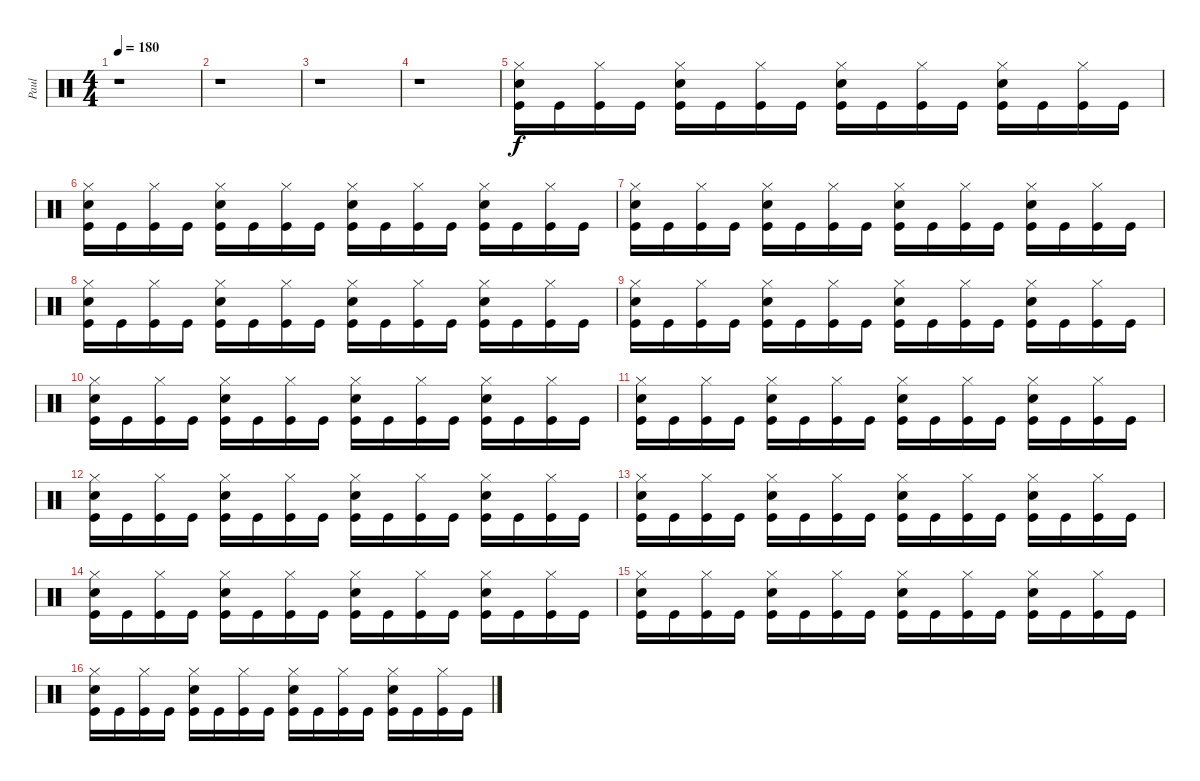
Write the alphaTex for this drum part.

\track ("Paul" "Paul") {instrument percussion}
\staff {score}
\articulation defaults
\ts (4 4)
\tempo 180
\clef neutral
\ks c
r.1{dy f} |
r.1 |
r.1 |
r.1 |
("Kick (hit)" "Snare (hit) 2" "Hi-Hat (closed)").16 "Kick (hit)".16 ("Kick (hit)" "Hi-Hat (closed)").16 "Kick (hit)".16 ("Kick (hit)" "Snare (hit) 2" "Hi-Hat (closed)").16 "Kick (hit)".16 ("Kick (hit)" "Hi-Hat (closed)").16 "Kick (hit)".16 ("Kick (hit)" "Snare (hit) 2" "Hi-Hat (closed)").16 "Kick (hit)".16 ("Kick (hit)" "Hi-Hat (closed)").16 "Kick (hit)".16 ("Kick (hit)" "Snare (hit) 2" "Hi-Hat (closed)").16 "Kick (hit)".16 ("Kick (hit)" "Hi-Hat (closed)").16 "Kick (hit)".16 |
("Kick (hit)" "Snare (hit) 2" "Hi-Hat (closed)").16 "Kick (hit)".16 ("Kick (hit)" "Hi-Hat (closed)").16 "Kick (hit)".16 ("Kick (hit)" "Snare (hit) 2" "Hi-Hat (closed)").16 "Kick (hit)".16 ("Kick (hit)" "Hi-Hat (closed)").16 "Kick (hit)".16 ("Kick (hit)" "Snare (hit) 2" "Hi-Hat (closed)").16 "Kick (hit)".16 ("Kick (hit)" "Hi-Hat (closed)").16 "Kick (hit)".16 ("Kick (hit)" "Snare (hit) 2" "Hi-Hat (closed)").16 "Kick (hit)".16 ("Kick (hit)" "Hi-Hat (closed)").16 "Kick (hit)".16 |
("Kick (hit)" "Snare (hit) 2" "Hi-Hat (closed)").16 "Kick (hit)".16 ("Kick (hit)" "Hi-Hat (closed)").16 "Kick (hit)".16 ("Kick (hit)" "Snare (hit) 2" "Hi-Hat (closed)").16 "Kick (hit)".16 ("Kick (hit)" "Hi-Hat (closed)").16 "Kick (hit)".16 ("Kick (hit)" "Snare (hit) 2" "Hi-Hat (closed)").16 "Kick (hit)".16 ("Kick (hit)" "Hi-Hat (closed)").16 "Kick (hit)".16 ("Kick (hit)" "Snare (hit) 2" "Hi-Hat (closed)").16 "Kick (hit)".16 ("Kick (hit)" "Hi-Hat (closed)").16 "Kick (hit)".16 |
("Kick (hit)" "Snare (hit) 2" "Hi-Hat (closed)").16 "Kick (hit)".16 ("Kick (hit)" "Hi-Hat (closed)").16 "Kick (hit)".16 ("Kick (hit)" "Snare (hit) 2" "Hi-Hat (closed)").16 "Kick (hit)".16 ("Kick (hit)" "Hi-Hat (closed)").16 "Kick (hit)".16 ("Kick (hit)" "Snare (hit) 2" "Hi-Hat (closed)").16 "Kick (hit)".16 ("Kick (hit)" "Hi-Hat (closed)").16 "Kick (hit)".16 ("Kick (hit)" "Snare (hit) 2" "Hi-Hat (closed)").16 "Kick (hit)".16 ("Kick (hit)" "Hi-Hat (closed)").16 "Kick (hit)".16 |
("Kick (hit)" "Snare (hit) 2" "Hi-Hat (closed)").16 "Kick (hit)".16 ("Kick (hit)" "Hi-Hat (closed)").16 "Kick (hit)".16 ("Kick (hit)" "Snare (hit) 2" "Hi-Hat (closed)").16 "Kick (hit)".16 ("Kick (hit)" "Hi-Hat (closed)").16 "Kick (hit)".16 ("Kick (hit)" "Snare (hit) 2" "Hi-Hat (closed)").16 "Kick (hit)".16 ("Kick (hit)" "Hi-Hat (closed)").16 "Kick (hit)".16 ("Kick (hit)" "Snare (hit) 2" "Hi-Hat (closed)").16 "Kick (hit)".16 ("Kick (hit)" "Hi-Hat (closed)").16 "Kick (hit)".16 |
("Kick (hit)" "Snare (hit) 2" "Hi-Hat (closed)").16 "Kick (hit)".16 ("Kick (hit)" "Hi-Hat (closed)").16 "Kick (hit)".16 ("Kick (hit)" "Snare (hit) 2" "Hi-Hat (closed)").16 "Kick (hit)".16 ("Kick (hit)" "Hi-Hat (closed)").16 "Kick (hit)".16 ("Kick (hit)" "Snare (hit) 2" "Hi-Hat (closed)").16 "Kick (hit)".16 ("Kick (hit)" "Hi-Hat (closed)").16 "Kick (hit)".16 ("Kick (hit)" "Snare (hit) 2" "Hi-Hat (closed)").16 "Kick (hit)".16 ("Kick (hit)" "Hi-Hat (closed)").16 "Kick (hit)".16 |
("Kick (hit)" "Snare (hit) 2" "Hi-Hat (closed)").16 "Kick (hit)".16 ("Kick (hit)" "Hi-Hat (closed)").16 "Kick (hit)".16 ("Kick (hit)" "Snare (hit) 2" "Hi-Hat (closed)").16 "Kick (hit)".16 ("Kick (hit)" "Hi-Hat (closed)").16 "Kick (hit)".16 ("Kick (hit)" "Snare (hit) 2" "Hi-Hat (closed)").16 "Kick (hit)".16 ("Kick (hit)" "Hi-Hat (closed)").16 "Kick (hit)".16 ("Kick (hit)" "Snare (hit) 2" "Hi-Hat (closed)").16 "Kick (hit)".16 ("Kick (hit)" "Hi-Hat (closed)").16 "Kick (hit)".16 |
("Kick (hit)" "Snare (hit) 2" "Hi-Hat (closed)").16 "Kick (hit)".16 ("Kick (hit)" "Hi-Hat (closed)").16 "Kick (hit)".16 ("Kick (hit)" "Snare (hit) 2" "Hi-Hat (closed)").16 "Kick (hit)".16 ("Kick (hit)" "Hi-Hat (closed)").16 "Kick (hit)".16 ("Kick (hit)" "Snare (hit) 2" "Hi-Hat (closed)").16 "Kick (hit)".16 ("Kick (hit)" "Hi-Hat (closed)").16 "Kick (hit)".16 ("Kick (hit)" "Snare (hit) 2" "Hi-Hat (closed)").16 "Kick (hit)".16 ("Kick (hit)" "Hi-Hat (closed)").16 "Kick (hit)".16 |
("Kick (hit)" "Snare (hit) 2" "Hi-Hat (closed)").16 "Kick (hit)".16 ("Kick (hit)" "Hi-Hat (closed)").16 "Kick (hit)".16 ("Kick (hit)" "Snare (hit) 2" "Hi-Hat (closed)").16 "Kick (hit)".16 ("Kick (hit)" "Hi-Hat (closed)").16 "Kick (hit)".16 ("Kick (hit)" "Snare (hit) 2" "Hi-Hat (closed)").16 "Kick (hit)".16 ("Kick (hit)" "Hi-Hat (closed)").16 "Kick (hit)".16 ("Kick (hit)" "Snare (hit) 2" "Hi-Hat (closed)").16 "Kick (hit)".16 ("Kick (hit)" "Hi-Hat (closed)").16 "Kick (hit)".16 |
("Kick (hit)" "Snare (hit) 2" "Hi-Hat (closed)").16 "Kick (hit)".16 ("Kick (hit)" "Hi-Hat (closed)").16 "Kick (hit)".16 ("Kick (hit)" "Snare (hit) 2" "Hi-Hat (closed)").16 "Kick (hit)".16 ("Kick (hit)" "Hi-Hat (closed)").16 "Kick (hit)".16 ("Kick (hit)" "Snare (hit) 2" "Hi-Hat (closed)").16 "Kick (hit)".16 ("Kick (hit)" "Hi-Hat (closed)").16 "Kick (hit)".16 ("Kick (hit)" "Snare (hit) 2" "Hi-Hat (closed)").16 "Kick (hit)".16 ("Kick (hit)" "Hi-Hat (closed)").16 "Kick (hit)".16 |
("Kick (hit)" "Snare (hit) 2" "Hi-Hat (closed)").16 "Kick (hit)".16 ("Kick (hit)" "Hi-Hat (closed)").16 "Kick (hit)".16 ("Kick (hit)" "Snare (hit) 2" "Hi-Hat (closed)").16 "Kick (hit)".16 ("Kick (hit)" "Hi-Hat (closed)").16 "Kick (hit)".16 ("Kick (hit)" "Snare (hit) 2" "Hi-Hat (closed)").16 "Kick (hit)".16 ("Kick (hit)" "Hi-Hat (closed)").16 "Kick (hit)".16 ("Kick (hit)" "Snare (hit) 2" "Hi-Hat (closed)").16 "Kick (hit)".16 ("Kick (hit)" "Hi-Hat (closed)").16 "Kick (hit)".16 |
("Kick (hit)" "Snare (hit) 2" "Hi-Hat (closed)").16 "Kick (hit)".16 ("Kick (hit)" "Hi-Hat (closed)").16 "Kick (hit)".16 ("Kick (hit)" "Snare (hit) 2" "Hi-Hat (closed)").16 "Kick (hit)".16 ("Kick (hit)" "Hi-Hat (closed)").16 "Kick (hit)".16 ("Kick (hit)" "Snare (hit) 2" "Hi-Hat (closed)").16 "Kick (hit)".16 ("Kick (hit)" "Hi-Hat (closed)").16 "Kick (hit)".16 ("Kick (hit)" "Snare (hit) 2" "Hi-Hat (closed)").16 "Kick (hit)".16 ("Kick (hit)" "Hi-Hat (closed)").16 "Kick (hit)".16
